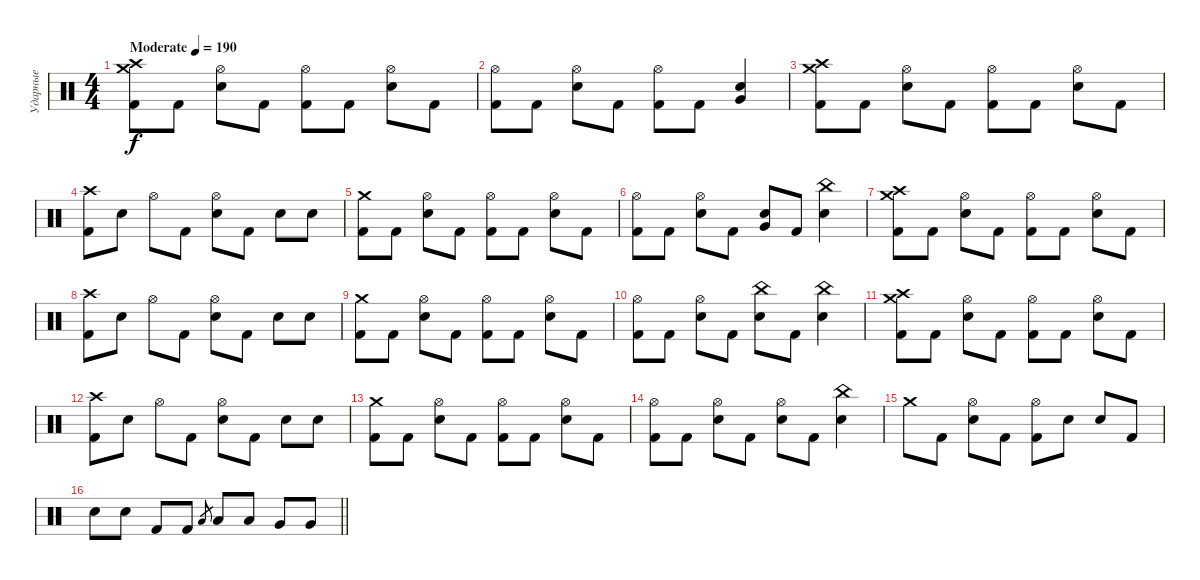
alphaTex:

\track ("Ударные" "Ударные") {instrument percussion}
\staff {score}
\articulation defaults
\ts (4 4)
\tempo (190 "Moderate")
\clef neutral
\ks c
("Crash high (hit)" "Crash medium (hit)" "Kick (hit) 2").8{dy f} "Kick (hit) 2".8 ("Hi-Hat (open)" "Electric Snare (hit)").8 "Kick (hit) 2".8 ("Hi-Hat (open)" "Kick (hit) 2").8 "Kick (hit) 2".8 ("Hi-Hat (open)" "Electric Snare (hit)").8 "Kick (hit) 2".8 |
("Hi-Hat (open)" "Kick (hit) 2").8 "Kick (hit) 2".8 ("Hi-Hat (open)" "Electric Snare (hit)").8 "Kick (hit) 2".8 ("Hi-Hat (open)" "Kick (hit) 2").8 "Kick (hit) 2".8 ("Electric Snare (hit)" "Very Low Tom (hit)").4 |
("Crash high (hit)" "Crash medium (hit)" "Kick (hit) 2").8 "Kick (hit) 2".8 ("Hi-Hat (open)" "Electric Snare (hit)").8 "Kick (hit) 2".8 ("Hi-Hat (open)" "Kick (hit) 2").8 "Kick (hit) 2".8 ("Hi-Hat (open)" "Electric Snare (hit)").8 "Kick (hit) 2".8 |
("Crash high (hit)" "Kick (hit) 2").8 "Electric Snare (hit)".8 "Hi-Hat (open)".8 "Kick (hit) 2".8 ("Hi-Hat (open)" "Electric Snare (hit)").8 "Kick (hit) 2".8 "Electric Snare (hit)".8 "Electric Snare (hit)".8 |
("Crash medium (hit)" "Kick (hit) 2").8 "Kick (hit) 2".8 ("Hi-Hat (open)" "Electric Snare (hit)").8 "Kick (hit) 2".8 ("Hi-Hat (open)" "Kick (hit) 2").8 "Kick (hit) 2".8 ("Hi-Hat (open)" "Electric Snare (hit)").8 "Kick (hit) 2".8 |
("Hi-Hat (open)" "Kick (hit) 2").8 "Kick (hit) 2".8 ("Hi-Hat (open)" "Electric Snare (hit)").8 "Kick (hit) 2".8 ("Electric Snare (hit)" "Very Low Tom (hit)").8 "Kick (hit) 2".8 ("China (hit)" "Electric Snare (hit)").4 |
("Crash high (hit)" "Crash medium (hit)" "Kick (hit) 2").8 "Kick (hit) 2".8 ("Hi-Hat (open)" "Electric Snare (hit)").8 "Kick (hit) 2".8 ("Hi-Hat (open)" "Kick (hit) 2").8 "Kick (hit) 2".8 ("Hi-Hat (open)" "Electric Snare (hit)").8 "Kick (hit) 2".8 |
("Kick (hit) 2" "Crash high (hit)").8 "Electric Snare (hit)".8 "Hi-Hat (open)".8 "Kick (hit) 2".8 ("Hi-Hat (open)" "Electric Snare (hit)").8 "Kick (hit) 2".8 "Electric Snare (hit)".8 "Electric Snare (hit)".8 |
("Crash medium (hit)" "Kick (hit) 2").8 "Kick (hit) 2".8 ("Hi-Hat (open)" "Electric Snare (hit)").8 "Kick (hit) 2".8 ("Hi-Hat (open)" "Kick (hit) 2").8 "Kick (hit) 2".8 ("Hi-Hat (open)" "Electric Snare (hit)").8 "Kick (hit) 2".8 |
("Hi-Hat (open)" "Kick (hit) 2").8 "Kick (hit) 2".8 ("Hi-Hat (open)" "Electric Snare (hit)").8 "Kick (hit) 2".8 ("China (hit)" "Electric Snare (hit)").8 "Kick (hit) 2".8 ("China (hit)" "Electric Snare (hit)").4 |
("Crash high (hit)" "Crash medium (hit)" "Kick (hit) 2").8 "Kick (hit) 2".8 ("Hi-Hat (open)" "Electric Snare (hit)").8 "Kick (hit) 2".8 ("Hi-Hat (open)" "Kick (hit) 2").8 "Kick (hit) 2".8 ("Hi-Hat (open)" "Electric Snare (hit)").8 "Kick (hit) 2".8 |
("Kick (hit) 2" "Crash high (hit)").8 "Electric Snare (hit)".8 "Hi-Hat (open)".8 "Kick (hit) 2".8 ("Hi-Hat (open)" "Electric Snare (hit)").8 "Kick (hit) 2".8 "Electric Snare (hit)".8 "Electric Snare (hit)".8 |
("Crash medium (hit)" "Kick (hit) 2").8 "Kick (hit) 2".8 ("Hi-Hat (open)" "Electric Snare (hit)").8 "Kick (hit) 2".8 ("Hi-Hat (open)" "Kick (hit) 2").8 "Kick (hit) 2".8 ("Hi-Hat (open)" "Electric Snare (hit)").8 "Kick (hit) 2".8 |
("Hi-Hat (open)" "Kick (hit) 2").8 "Kick (hit) 2".8 ("Hi-Hat (open)" "Electric Snare (hit)").8 "Kick (hit) 2".8 ("Hi-Hat (open)" "Electric Snare (hit)").8 "Kick (hit) 2".8 ("China (hit)" "Electric Snare (hit)").4 |
"Crash medium (hit)".8 "Kick (hit) 2".8 ("Hi-Hat (open)" "Electric Snare (hit)").8 "Kick (hit) 2".8 ("Hi-Hat (open)" "Kick (hit) 2").8 "Electric Snare (hit)".8 "Electric Snare (hit)".8 "Kick (hit) 2".8 |
\barLineRight lightlight "Electric Snare (hit)".8 "Electric Snare (hit)".8 "Kick (hit) 2".8 "Kick (hit) 2".8 "Low Tom (hit)".8{gr} "Low Tom (hit)".8 "Low Tom (hit)".8 "Very Low Tom (hit)".8 "Very Low Tom (hit)".8
